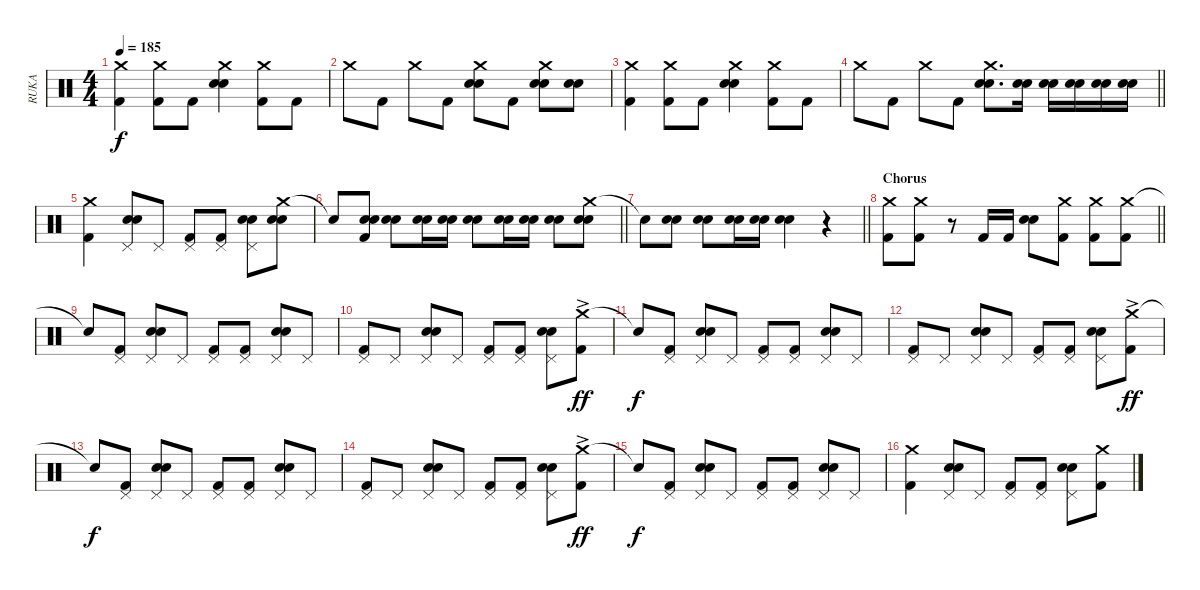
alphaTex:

\track ("RUKA" "RUKA") {instrument percussion}
\staff {score}
\articulation defaults
\ts (4 4)
\tempo 185
\clef neutral
\ks c
("Crash medium (hit)" "Kick (hit) 2").4{dy f} ("Crash medium (hit)" "Kick (hit) 2").8 "Kick (hit) 2".8 ("Crash medium (hit)" "Snare (hit) 2" "Electric Snare (hit)").4 ("Crash medium (hit)" "Kick (hit) 2").8 "Kick (hit) 2".8 |
"Crash medium (hit)".8 "Kick (hit) 2".8 "Crash medium (hit)".8 "Kick (hit) 2".8 ("Crash medium (hit)" "Snare (hit) 2" "Electric Snare (hit)").8 "Kick (hit) 2".8 ("Crash medium (hit)" "Snare (hit) 2" "Electric Snare (hit)").8 ("Snare (hit) 2" "Electric Snare (hit)").8 |
("Crash medium (hit)" "Kick (hit) 2").4 ("Crash medium (hit)" "Kick (hit) 2").8 "Kick (hit) 2".8 ("Crash medium (hit)" "Snare (hit) 2" "Electric Snare (hit)").4 ("Crash medium (hit)" "Kick (hit) 2").8 "Kick (hit) 2".8 |
\barLineRight lightlight "Crash medium (hit)".8 "Kick (hit) 2".8 "Crash medium (hit)".8 "Kick (hit) 2".8
("Crash medium (hit)" "Snare (hit) 2" "Electric Snare (hit)").8{d} ("Snare (hit) 2" "Electric Snare (hit)").16 ("Snare (hit) 2" "Electric Snare (hit)").16 ("Snare (hit) 2" "Electric Snare (hit)").16 ("Snare (hit) 2" "Electric Snare (hit)").16 ("Snare (hit) 2" "Electric Snare (hit)").16 |
("Crash medium (hit)" "Kick (hit) 2").4 ("Pedal Hi-Hat (hit)" "Snare (hit) 2" "Electric Snare (hit)").8 "Pedal Hi-Hat (hit)".8 ("Pedal Hi-Hat (hit)" "Kick (hit) 2").8 ("Pedal Hi-Hat (hit)" "Kick (hit) 2").8 ("Pedal Hi-Hat (hit)" "Snare (hit) 2" "Electric Snare (hit)").8 ("Crash medium (hit)" "Snare (hit) 2" "Electric Snare (hit)").8 |
\barLineRight lightlight "Snare (hit)"{t}.8
("Kick (hit) 2" "Snare (hit) 2" "Electric Snare (hit)").8 ("Snare (hit) 2" "Electric Snare (hit)").8 ("Snare (hit) 2" "Electric Snare (hit)").16 ("Snare (hit) 2" "Electric Snare (hit)").16 ("Snare (hit) 2" "Electric Snare (hit)").8 ("Snare (hit) 2" "Electric Snare (hit)").16 ("Snare (hit) 2" "Electric Snare (hit)").16 ("Snare (hit) 2" "Electric Snare (hit)").8 ("Crash medium (hit)" "Snare (hit) 2" "Electric Snare (hit)").8 |
\barLineRight lightlight "Snare (hit)"{t}.8
("Snare (hit) 2" "Electric Snare (hit)").8 ("Snare (hit) 2" "Electric Snare (hit)").8 ("Snare (hit) 2" "Electric Snare (hit)").16 ("Snare (hit) 2" "Electric Snare (hit)").16 ("Snare (hit) 2" "Electric Snare (hit)").4 r.4 |
\section ("" "Chorus")
\barLineRight lightlight
("Crash medium (hit)" "Kick (hit) 2").8 ("Crash medium (hit)" "Kick (hit) 2").8 r.8 "Kick (hit) 2".16 "Kick (hit) 2".16 ("Snare (hit) 2" "Electric Snare (hit)").8 ("Crash medium (hit)" "Kick (hit) 2").8 ("Crash medium (hit)" "Kick (hit) 2").8 ("Crash medium (hit)" "Kick (hit) 2").8 |
"Snare (hit)"{t}.8 ("Pedal Hi-Hat (hit)" "Kick (hit) 2").8 ("Pedal Hi-Hat (hit)" "Snare (hit) 2" "Electric Snare (hit)").8 "Pedal Hi-Hat (hit)".8 ("Pedal Hi-Hat (hit)" "Kick (hit) 2").8 ("Pedal Hi-Hat (hit)" "Kick (hit) 2").8 ("Pedal Hi-Hat (hit)" "Snare (hit) 2" "Electric Snare (hit)").8 "Pedal Hi-Hat (hit)".8 |
("Pedal Hi-Hat (hit)" "Kick (hit) 2").8 "Pedal Hi-Hat (hit)".8 ("Pedal Hi-Hat (hit)" "Snare (hit) 2" "Electric Snare (hit)").8 "Pedal Hi-Hat (hit)".8 ("Pedal Hi-Hat (hit)" "Kick (hit) 2").8 ("Pedal Hi-Hat (hit)" "Kick (hit) 2").8 ("Pedal Hi-Hat (hit)" "Snare (hit) 2" "Electric Snare (hit)").8 ("Crash medium (hit)"{ac} "Kick (hit) 2").8{dy ff} |
"Snare (hit)"{t}.8{dy f} ("Pedal Hi-Hat (hit)" "Kick (hit) 2").8 ("Pedal Hi-Hat (hit)" "Snare (hit) 2" "Electric Snare (hit)").8 "Pedal Hi-Hat (hit)".8 ("Pedal Hi-Hat (hit)" "Kick (hit) 2").8 ("Pedal Hi-Hat (hit)" "Kick (hit) 2").8 ("Pedal Hi-Hat (hit)" "Snare (hit) 2" "Electric Snare (hit)").8 "Pedal Hi-Hat (hit)".8 |
("Pedal Hi-Hat (hit)" "Kick (hit) 2").8 "Pedal Hi-Hat (hit)".8 ("Pedal Hi-Hat (hit)" "Snare (hit) 2" "Electric Snare (hit)").8 "Pedal Hi-Hat (hit)".8 ("Pedal Hi-Hat (hit)" "Kick (hit) 2").8 ("Pedal Hi-Hat (hit)" "Kick (hit) 2").8 ("Pedal Hi-Hat (hit)" "Snare (hit) 2" "Electric Snare (hit)").8 ("Crash medium (hit)"{ac} "Kick (hit) 2").8{dy ff} |
"Snare (hit)"{t}.8{dy f} ("Pedal Hi-Hat (hit)" "Kick (hit) 2").8 ("Pedal Hi-Hat (hit)" "Snare (hit) 2" "Electric Snare (hit)").8 "Pedal Hi-Hat (hit)".8 ("Pedal Hi-Hat (hit)" "Kick (hit) 2").8 ("Pedal Hi-Hat (hit)" "Kick (hit) 2").8 ("Pedal Hi-Hat (hit)" "Snare (hit) 2" "Electric Snare (hit)").8 "Pedal Hi-Hat (hit)".8 |
("Pedal Hi-Hat (hit)" "Kick (hit) 2").8 "Pedal Hi-Hat (hit)".8 ("Pedal Hi-Hat (hit)" "Snare (hit) 2" "Electric Snare (hit)").8 "Pedal Hi-Hat (hit)".8 ("Pedal Hi-Hat (hit)" "Kick (hit) 2").8 ("Pedal Hi-Hat (hit)" "Kick (hit) 2").8 ("Pedal Hi-Hat (hit)" "Snare (hit) 2" "Electric Snare (hit)").8 ("Crash medium (hit)"{ac} "Kick (hit) 2").8{dy ff} |
"Snare (hit)"{t}.8{dy f} ("Pedal Hi-Hat (hit)" "Kick (hit) 2").8 ("Pedal Hi-Hat (hit)" "Snare (hit) 2" "Electric Snare (hit)").8 "Pedal Hi-Hat (hit)".8 ("Pedal Hi-Hat (hit)" "Kick (hit) 2").8 ("Pedal Hi-Hat (hit)" "Kick (hit) 2").8 ("Pedal Hi-Hat (hit)" "Snare (hit) 2" "Electric Snare (hit)").8 "Pedal Hi-Hat (hit)".8 |
("Crash medium (hit)" "Kick (hit) 2").4 ("Pedal Hi-Hat (hit)" "Snare (hit) 2" "Electric Snare (hit)").8 "Pedal Hi-Hat (hit)".8 ("Pedal Hi-Hat (hit)" "Kick (hit) 2").8 ("Pedal Hi-Hat (hit)" "Kick (hit) 2").8 ("Pedal Hi-Hat (hit)" "Snare (hit) 2" "Electric Snare (hit)").8 ("Crash medium (hit)" "Kick (hit) 2").8
